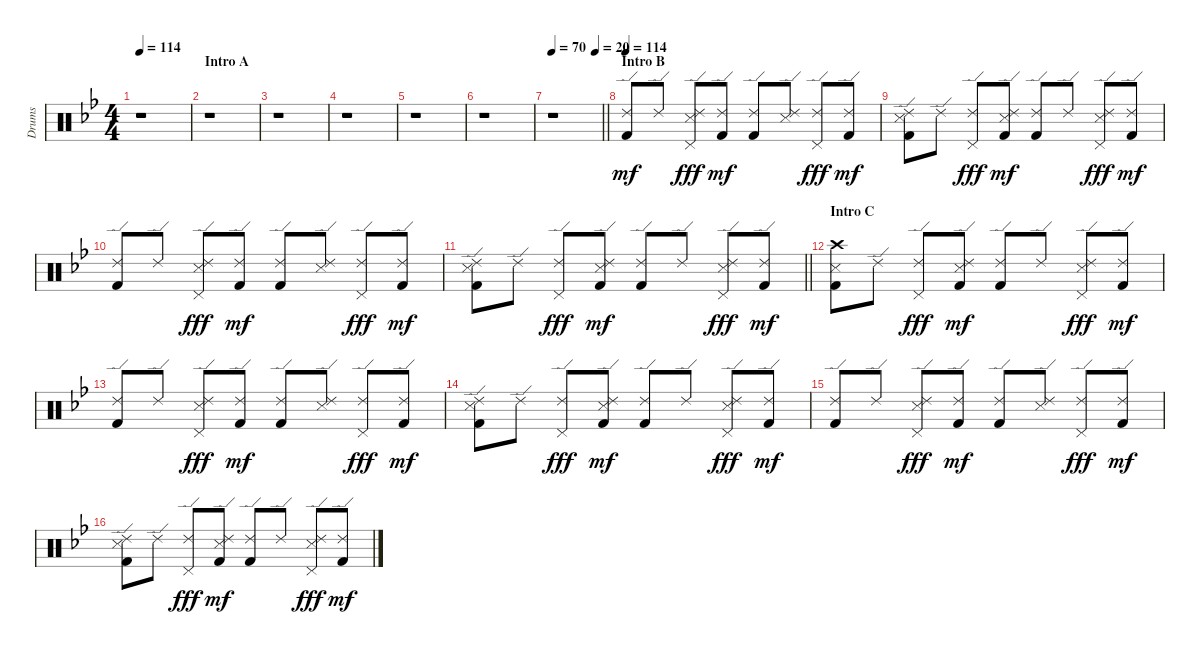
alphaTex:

\track ("Drums" "Drums") {instrument percussion}
\staff {score}
\articulation defaults
\ts (4 4)
\tempo 114
\tempo 88
\tempo 114
\clef neutral
\ks gminor
r.1{dy mf} |
\section ("" "Intro A")
r.1 |
r.1 |
r.1 |
r.1 |
r.1 |
\tempo 70
\tempo (20 0.875)
\barLineRight lightlight
r.1 |
\section ("" "Intro B")
\tempo 114
("Ride (edge) 2" "Kick (hit) 2").8 "Ride (edge) 2".8 ("Ride (edge) 2" "Pedal Hi-Hat (hit)" "Snare (side stick) 3").8{dy fff} ("Ride (edge) 2" "Kick (hit) 2").8{dy mf} ("Ride (edge) 2" "Kick (hit) 2").8 ("Ride (edge) 2" "Snare (side stick) 3").8 ("Ride (edge) 2" "Pedal Hi-Hat (hit)").8{dy fff} ("Ride (edge) 2" "Kick (hit) 2").8{dy mf} |
("Ride (edge) 2" "Snare (side stick) 3" "Kick (hit) 2").8 "Ride (edge) 2".8 ("Ride (edge) 2" "Pedal Hi-Hat (hit)").8{dy fff} ("Ride (edge) 2" "Snare (side stick) 3" "Kick (hit) 2").8{dy mf} ("Ride (edge) 2" "Kick (hit) 2").8 "Ride (edge) 2".8 ("Ride (edge) 2" "Pedal Hi-Hat (hit)" "Snare (side stick) 3").8{dy fff} ("Ride (edge) 2" "Kick (hit) 2").8{dy mf} |
("Ride (edge) 2" "Kick (hit) 2").8 "Ride (edge) 2".8 ("Ride (edge) 2" "Pedal Hi-Hat (hit)" "Snare (side stick) 3").8{dy fff} ("Ride (edge) 2" "Kick (hit) 2").8{dy mf} ("Ride (edge) 2" "Kick (hit) 2").8 ("Ride (edge) 2" "Snare (side stick) 3").8 ("Ride (edge) 2" "Pedal Hi-Hat (hit)").8{dy fff} ("Ride (edge) 2" "Kick (hit) 2").8{dy mf} |
\barLineRight lightlight
("Ride (edge) 2" "Snare (side stick) 3" "Kick (hit) 2").8 "Ride (edge) 2".8 ("Ride (edge) 2" "Pedal Hi-Hat (hit)").8{dy fff} ("Ride (edge) 2" "Snare (side stick) 3" "Kick (hit) 2").8{dy mf} ("Ride (edge) 2" "Kick (hit) 2").8 "Ride (edge) 2".8 ("Ride (edge) 2" "Pedal Hi-Hat (hit)" "Snare (side stick) 3").8{dy fff} ("Ride (edge) 2" "Kick (hit) 2").8{dy mf} |
\section ("" "Intro C")
("Crash high (hit)" "Snare (side stick) 3" "Kick (hit) 2").8 "Ride (edge) 2".8 ("Ride (edge) 2" "Pedal Hi-Hat (hit)").8{dy fff} ("Ride (edge) 2" "Snare (side stick) 3" "Kick (hit) 2").8{dy mf} ("Ride (edge) 2" "Kick (hit) 2").8 "Ride (edge) 2".8 ("Ride (edge) 2" "Pedal Hi-Hat (hit)" "Snare (side stick) 3").8{dy fff} ("Ride (edge) 2" "Kick (hit) 2").8{dy mf} |
("Ride (edge) 2" "Kick (hit) 2").8 "Ride (edge) 2".8 ("Ride (edge) 2" "Pedal Hi-Hat (hit)" "Snare (side stick) 3").8{dy fff} ("Ride (edge) 2" "Kick (hit) 2").8{dy mf} ("Ride (edge) 2" "Kick (hit) 2").8 ("Ride (edge) 2" "Snare (side stick) 3").8 ("Ride (edge) 2" "Pedal Hi-Hat (hit)").8{dy fff} ("Ride (edge) 2" "Kick (hit) 2").8{dy mf} |
("Ride (edge) 2" "Snare (side stick) 3" "Kick (hit) 2").8 "Ride (edge) 2".8 ("Ride (edge) 2" "Pedal Hi-Hat (hit)").8{dy fff} ("Ride (edge) 2" "Snare (side stick) 3" "Kick (hit) 2").8{dy mf} ("Ride (edge) 2" "Kick (hit) 2").8 "Ride (edge) 2".8 ("Ride (edge) 2" "Pedal Hi-Hat (hit)" "Snare (side stick) 3").8{dy fff} ("Ride (edge) 2" "Kick (hit) 2").8{dy mf} |
("Ride (edge) 2" "Kick (hit) 2").8 "Ride (edge) 2".8 ("Ride (edge) 2" "Pedal Hi-Hat (hit)" "Snare (side stick) 3").8{dy fff} ("Ride (edge) 2" "Kick (hit) 2").8{dy mf} ("Ride (edge) 2" "Kick (hit) 2").8 ("Ride (edge) 2" "Snare (side stick) 3").8 ("Ride (edge) 2" "Pedal Hi-Hat (hit)").8{dy fff} ("Ride (edge) 2" "Kick (hit) 2").8{dy mf} |
("Ride (edge) 2" "Snare (side stick) 3" "Kick (hit) 2").8 "Ride (edge) 2".8 ("Ride (edge) 2" "Pedal Hi-Hat (hit)").8{dy fff} ("Ride (edge) 2" "Snare (side stick) 3" "Kick (hit) 2").8{dy mf} ("Ride (edge) 2" "Kick (hit) 2").8 "Ride (edge) 2".8 ("Ride (edge) 2" "Pedal Hi-Hat (hit)" "Snare (side stick) 3").8{dy fff} ("Ride (edge) 2" "Kick (hit) 2").8{dy mf}
